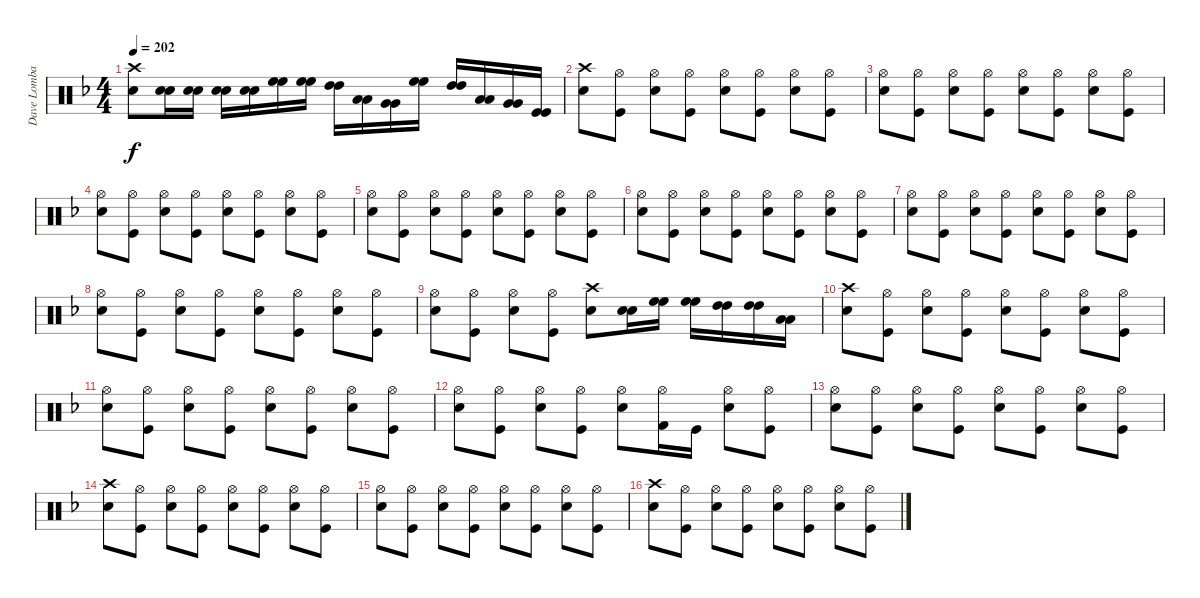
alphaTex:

\track ("Dave Lombardo - Drums" "Dave Lomba") {instrument percussion}
\staff {score}
\articulation defaults
\ts (4 4)
\tempo 202
\clef neutral
\ks f
("Crash high (hit)" "Snare (hit) 2").8{dy f} ("Snare (hit) 2" "Snare (hit) 2").16 ("Snare (hit) 2" "Snare (hit) 2").16 ("Snare (hit) 2" "Snare (hit) 2").16 ("Snare (hit) 2" "Snare (hit) 2").16 ("High Floor Tom (hit)" "High Floor Tom (hit)").16 ("High Floor Tom (hit)" "High Floor Tom (hit)").16 ("High Tom (hit)" "High Tom (hit)").16 ("Low Tom (hit)" "Low Tom (hit)").16 ("Very Low Tom (hit)" "Very Low Tom (hit)").16 ("High Floor Tom (hit)" "High Floor Tom (hit)").16 ("High Tom (hit)" "High Tom (hit)").16 ("Low Tom (hit)" "Low Tom (hit)").16 ("Very Low Tom (hit)" "Very Low Tom (hit)").16 ("Kick (hit)" "Kick (hit)").16 |
("Crash high (hit)" "Snare (hit) 2").8 ("Hi-Hat (open)" "Kick (hit)").8 ("Hi-Hat (open)" "Snare (hit) 2").8 ("Hi-Hat (open)" "Kick (hit)").8 ("Hi-Hat (open)" "Snare (hit) 2").8 ("Hi-Hat (open)" "Kick (hit)").8 ("Hi-Hat (open)" "Snare (hit) 2").8 ("Hi-Hat (open)" "Kick (hit)").8 |
("Hi-Hat (open)" "Snare (hit) 2").8 ("Hi-Hat (open)" "Kick (hit)").8 ("Hi-Hat (open)" "Snare (hit) 2").8 ("Hi-Hat (open)" "Kick (hit)").8 ("Hi-Hat (open)" "Snare (hit) 2").8 ("Hi-Hat (open)" "Kick (hit)").8 ("Hi-Hat (open)" "Snare (hit) 2").8 ("Hi-Hat (open)" "Kick (hit)").8 |
("Hi-Hat (open)" "Snare (hit) 2").8 ("Hi-Hat (open)" "Kick (hit)").8 ("Hi-Hat (open)" "Snare (hit) 2").8 ("Hi-Hat (open)" "Kick (hit)").8 ("Hi-Hat (open)" "Snare (hit) 2").8 ("Hi-Hat (open)" "Kick (hit)").8 ("Hi-Hat (open)" "Snare (hit) 2").8 ("Hi-Hat (open)" "Kick (hit)").8 |
("Hi-Hat (open)" "Snare (hit) 2").8 ("Hi-Hat (open)" "Kick (hit)").8 ("Hi-Hat (open)" "Snare (hit) 2").8 ("Hi-Hat (open)" "Kick (hit)").8 ("Hi-Hat (open)" "Snare (hit) 2").8 ("Hi-Hat (open)" "Kick (hit)").8 ("Hi-Hat (open)" "Snare (hit) 2").8 ("Hi-Hat (open)" "Kick (hit)").8 |
("Hi-Hat (open)" "Snare (hit) 2").8 ("Hi-Hat (open)" "Kick (hit)").8 ("Hi-Hat (open)" "Snare (hit) 2").8 ("Hi-Hat (open)" "Kick (hit)").8 ("Hi-Hat (open)" "Snare (hit) 2").8 ("Hi-Hat (open)" "Kick (hit)").8 ("Hi-Hat (open)" "Snare (hit) 2").8 ("Hi-Hat (open)" "Kick (hit)").8 |
("Hi-Hat (open)" "Snare (hit) 2").8 ("Hi-Hat (open)" "Kick (hit)").8 ("Hi-Hat (open)" "Snare (hit) 2").8 ("Hi-Hat (open)" "Kick (hit)").8 ("Hi-Hat (open)" "Snare (hit) 2").8 ("Hi-Hat (open)" "Kick (hit)").8 ("Hi-Hat (open)" "Snare (hit) 2").8 ("Hi-Hat (open)" "Kick (hit)").8 |
("Hi-Hat (open)" "Snare (hit) 2").8 ("Hi-Hat (open)" "Kick (hit)").8 ("Hi-Hat (open)" "Snare (hit) 2").8 ("Hi-Hat (open)" "Kick (hit)").8 ("Hi-Hat (open)" "Snare (hit) 2").8 ("Hi-Hat (open)" "Kick (hit)").8 ("Hi-Hat (open)" "Snare (hit) 2").8 ("Hi-Hat (open)" "Kick (hit)").8 |
("Hi-Hat (open)" "Snare (hit) 2").8 ("Hi-Hat (open)" "Kick (hit)").8 ("Hi-Hat (open)" "Snare (hit) 2").8 ("Hi-Hat (open)" "Kick (hit)").8 ("Crash high (hit)" "Snare (hit) 2").8 ("Snare (hit) 2" "Snare (hit) 2").16 ("High Floor Tom (hit)" "High Floor Tom (hit)").16 ("High Floor Tom (hit)" "High Floor Tom (hit)").16 ("High Tom (hit)" "High Tom (hit)").16 ("High Tom (hit)" "High Tom (hit)").16 ("Low Tom (hit)" "Low Tom (hit)").16 |
("Crash high (hit)" "Snare (hit) 2").8 ("Hi-Hat (open)" "Kick (hit)").8 ("Hi-Hat (open)" "Snare (hit) 2").8 ("Hi-Hat (open)" "Kick (hit)").8 ("Hi-Hat (open)" "Snare (hit) 2").8 ("Hi-Hat (open)" "Kick (hit)").8 ("Hi-Hat (open)" "Snare (hit) 2").8 ("Hi-Hat (open)" "Kick (hit)").8 |
("Hi-Hat (open)" "Snare (hit) 2").8 ("Hi-Hat (open)" "Kick (hit)").8 ("Hi-Hat (open)" "Snare (hit) 2").8 ("Hi-Hat (open)" "Kick (hit)").8 ("Hi-Hat (open)" "Snare (hit) 2").8 ("Hi-Hat (open)" "Kick (hit)").8 ("Hi-Hat (open)" "Snare (hit) 2").8 ("Hi-Hat (open)" "Kick (hit)").8 |
("Hi-Hat (open)" "Snare (hit) 2").8 ("Hi-Hat (open)" "Kick (hit)").8 ("Hi-Hat (open)" "Snare (hit) 2").8 ("Hi-Hat (open)" "Kick (hit)").8 ("Hi-Hat (open)" "Snare (hit) 2").8 ("Hi-Hat (open)" "Kick (hit) 2").16 "Kick (hit)".16 ("Hi-Hat (open)" "Snare (hit) 2").8 ("Hi-Hat (open)" "Kick (hit)").8 |
("Hi-Hat (open)" "Snare (hit) 2").8 ("Hi-Hat (open)" "Kick (hit)").8 ("Hi-Hat (open)" "Snare (hit) 2").8 ("Hi-Hat (open)" "Kick (hit)").8 ("Hi-Hat (open)" "Snare (hit) 2").8 ("Hi-Hat (open)" "Kick (hit)").8 ("Hi-Hat (open)" "Snare (hit) 2").8 ("Hi-Hat (open)" "Kick (hit)").8 |
("Crash high (hit)" "Snare (hit) 2").8 ("Hi-Hat (open)" "Kick (hit)").8 ("Hi-Hat (open)" "Snare (hit) 2").8 ("Hi-Hat (open)" "Kick (hit)").8 ("Hi-Hat (open)" "Snare (hit) 2").8 ("Hi-Hat (open)" "Kick (hit)").8 ("Hi-Hat (open)" "Snare (hit) 2").8 ("Hi-Hat (open)" "Kick (hit)").8 |
("Hi-Hat (open)" "Snare (hit) 2").8 ("Hi-Hat (open)" "Kick (hit)").8 ("Hi-Hat (open)" "Snare (hit) 2").8 ("Hi-Hat (open)" "Kick (hit)").8 ("Hi-Hat (open)" "Snare (hit) 2").8 ("Hi-Hat (open)" "Kick (hit)").8 ("Hi-Hat (open)" "Snare (hit) 2").8 ("Hi-Hat (open)" "Kick (hit)").8 |
("Crash high (hit)" "Snare (hit) 2").8 ("Hi-Hat (open)" "Kick (hit)").8 ("Hi-Hat (open)" "Snare (hit) 2").8 ("Hi-Hat (open)" "Kick (hit)").8 ("Hi-Hat (open)" "Snare (hit) 2").8 ("Hi-Hat (open)" "Kick (hit)").8 ("Hi-Hat (open)" "Snare (hit) 2").8 ("Hi-Hat (open)" "Kick (hit)").8
